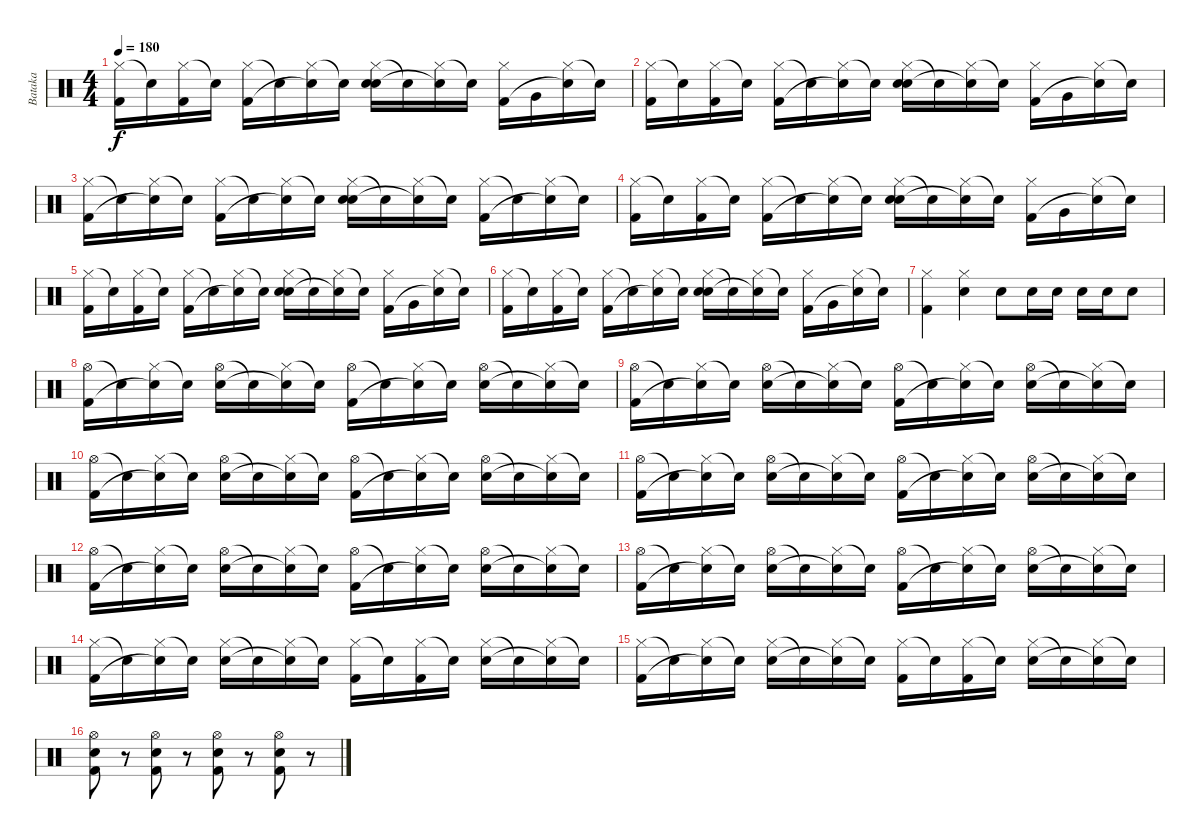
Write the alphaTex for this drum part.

\track ("Bataka" "Bataka") {instrument percussion}
\staff {score}
\articulation defaults
\ts (4 4)
\tempo 180
\clef neutral
\ks c
("Hi-Hat (closed)" "Kick (hit) 2").16{dy f} "Snare (hit)"{t}.16 ("Hi-Hat (closed)" "Kick (hit) 2").16 "Snare (hit)"{t}.16 ("Hi-Hat (closed)" "Kick (hit) 2").16 "Snare (hit)"{t}.16 ("Hi-Hat (closed)" "Snare (hit)"{t}).16 "Snare (hit)"{t}.16 ("Hi-Hat (closed)" "Snare (hit) 2" "Electric Snare (hit)").16 "Snare (hit)"{t}.16 ("Hi-Hat (closed)" "Snare (hit)"{t}).16 "Snare (hit)"{t}.16 ("Hi-Hat (closed)" "Kick (hit) 2").16 "Very Low Tom (hit)".16 ("Hi-Hat (closed)" "Snare (hit)"{t}).16 "Snare (hit)"{t}.16 |
("Hi-Hat (closed)" "Kick (hit) 2").16 "Snare (hit)"{t}.16 ("Hi-Hat (closed)" "Kick (hit) 2").16 "Snare (hit)"{t}.16 ("Hi-Hat (closed)" "Kick (hit) 2").16 "Snare (hit)"{t}.16 ("Hi-Hat (closed)" "Snare (hit)"{t}).16 "Snare (hit)"{t}.16 ("Hi-Hat (closed)" "Snare (hit) 2" "Electric Snare (hit)").16 "Snare (hit)"{t}.16 ("Hi-Hat (closed)" "Snare (hit)"{t}).16 "Snare (hit)"{t}.16 ("Hi-Hat (closed)" "Kick (hit) 2").16 "Very Low Tom (hit)".16 ("Hi-Hat (closed)" "Snare (hit)"{t}).16 "Snare (hit)"{t}.16 |
("Hi-Hat (closed)" "Kick (hit) 2").16 "Snare (hit)"{t}.16 ("Hi-Hat (closed)" "Snare (hit)"{t}).16 "Snare (hit)"{t}.16 ("Hi-Hat (closed)" "Kick (hit) 2").16 "Snare (hit)"{t}.16 ("Hi-Hat (closed)" "Snare (hit)"{t}).16 "Snare (hit)"{t}.16 ("Hi-Hat (closed)" "Snare (hit) 2" "Electric Snare (hit)").16 "Snare (hit)"{t}.16 ("Hi-Hat (closed)" "Snare (hit)"{t}).16 "Snare (hit)"{t}.16 ("Hi-Hat (closed)" "Kick (hit) 2").16 "Snare (hit)"{t}.16 ("Hi-Hat (closed)" "Snare (hit)"{t}).16 "Snare (hit)"{t}.16 |
("Hi-Hat (closed)" "Kick (hit) 2").16 "Snare (hit)"{t}.16 ("Hi-Hat (closed)" "Kick (hit) 2").16 "Snare (hit)"{t}.16 ("Hi-Hat (closed)" "Kick (hit) 2").16 "Snare (hit)"{t}.16 ("Hi-Hat (closed)" "Snare (hit)"{t}).16 "Snare (hit)"{t}.16 ("Hi-Hat (closed)" "Snare (hit) 2" "Electric Snare (hit)").16 "Snare (hit)"{t}.16 ("Hi-Hat (closed)" "Snare (hit)"{t}).16 "Snare (hit)"{t}.16 ("Hi-Hat (closed)" "Kick (hit) 2").16 "Very Low Tom (hit)".16 ("Hi-Hat (closed)" "Snare (hit)"{t}).16 "Snare (hit)"{t}.16 |
("Hi-Hat (closed)" "Kick (hit) 2").16 "Snare (hit)"{t}.16 ("Hi-Hat (closed)" "Kick (hit) 2").16 "Snare (hit)"{t}.16 ("Hi-Hat (closed)" "Kick (hit) 2").16 "Snare (hit)"{t}.16 ("Hi-Hat (closed)" "Snare (hit)"{t}).16 "Snare (hit)"{t}.16 ("Hi-Hat (closed)" "Snare (hit) 2" "Electric Snare (hit)").16 "Snare (hit)"{t}.16 ("Hi-Hat (closed)" "Snare (hit)"{t}).16 "Snare (hit)"{t}.16 ("Hi-Hat (closed)" "Kick (hit) 2").16 "Very Low Tom (hit)".16 ("Hi-Hat (closed)" "Snare (hit)"{t}).16 "Snare (hit)"{t}.16 |
("Hi-Hat (closed)" "Kick (hit) 2").16 "Snare (hit)"{t}.16 ("Hi-Hat (closed)" "Kick (hit) 2").16 "Snare (hit)"{t}.16 ("Hi-Hat (closed)" "Kick (hit) 2").16 "Snare (hit)"{t}.16 ("Hi-Hat (closed)" "Snare (hit)"{t}).16 "Snare (hit)"{t}.16 ("Hi-Hat (closed)" "Snare (hit) 2" "Electric Snare (hit)").16 "Snare (hit)"{t}.16 ("Hi-Hat (closed)" "Snare (hit)"{t}).16 "Snare (hit)"{t}.16 ("Hi-Hat (closed)" "Kick (hit) 2").16 "Very Low Tom (hit)".16 ("Hi-Hat (closed)" "Snare (hit)"{t}).16 "Snare (hit)"{t}.16 |
("Hi-Hat (closed)" "Kick (hit) 2").4 ("Hi-Hat (closed)" "Electric Snare (hit)").4 "Electric Snare (hit)".8 "Electric Snare (hit)".16 "Electric Snare (hit)".16 "Electric Snare (hit)".16 "Electric Snare (hit)".16 "Electric Snare (hit)".8 |
("Hi-Hat (open)" "Kick (hit) 2").16 "Snare (hit)"{t}.16 ("Hi-Hat (closed)" "Snare (hit)"{t}).16 "Snare (hit)"{t}.16 ("Hi-Hat (open)" "Electric Snare (hit)").16 "Snare (hit)"{t}.16 ("Hi-Hat (closed)" "Snare (hit)"{t}).16 "Snare (hit)"{t}.16 ("Hi-Hat (open)" "Kick (hit) 2").16 "Snare (hit)"{t}.16 ("Hi-Hat (closed)" "Snare (hit)"{t}).16 "Snare (hit)"{t}.16 ("Hi-Hat (open)" "Electric Snare (hit)").16 "Snare (hit)"{t}.16 ("Hi-Hat (closed)" "Snare (hit)"{t}).16 "Snare (hit)"{t}.16 |
("Hi-Hat (open)" "Kick (hit) 2").16 "Snare (hit)"{t}.16 ("Hi-Hat (closed)" "Snare (hit)"{t}).16 "Snare (hit)"{t}.16 ("Hi-Hat (open)" "Electric Snare (hit)").16 "Snare (hit)"{t}.16 ("Hi-Hat (closed)" "Snare (hit)"{t}).16 "Snare (hit)"{t}.16 ("Hi-Hat (open)" "Kick (hit) 2").16 "Snare (hit)"{t}.16 ("Hi-Hat (closed)" "Snare (hit)"{t}).16 "Snare (hit)"{t}.16 ("Hi-Hat (open)" "Electric Snare (hit)").16 "Snare (hit)"{t}.16 ("Hi-Hat (closed)" "Snare (hit)"{t}).16 "Snare (hit)"{t}.16 |
("Hi-Hat (open)" "Kick (hit) 2").16 "Snare (hit)"{t}.16 ("Hi-Hat (closed)" "Snare (hit)"{t}).16 "Snare (hit)"{t}.16 ("Hi-Hat (open)" "Electric Snare (hit)").16 "Snare (hit)"{t}.16 ("Hi-Hat (closed)" "Snare (hit)"{t}).16 "Snare (hit)"{t}.16 ("Hi-Hat (open)" "Kick (hit) 2").16 "Snare (hit)"{t}.16 ("Hi-Hat (closed)" "Snare (hit)"{t}).16 "Snare (hit)"{t}.16 ("Hi-Hat (open)" "Electric Snare (hit)").16 "Snare (hit)"{t}.16 ("Hi-Hat (closed)" "Snare (hit)"{t}).16 "Snare (hit)"{t}.16 |
("Hi-Hat (open)" "Kick (hit) 2").16 "Snare (hit)"{t}.16 ("Hi-Hat (closed)" "Snare (hit)"{t}).16 "Snare (hit)"{t}.16 ("Hi-Hat (open)" "Electric Snare (hit)").16 "Snare (hit)"{t}.16 ("Hi-Hat (closed)" "Snare (hit)"{t}).16 "Snare (hit)"{t}.16 ("Hi-Hat (open)" "Kick (hit) 2").16 "Snare (hit)"{t}.16 ("Hi-Hat (closed)" "Snare (hit)"{t}).16 "Snare (hit)"{t}.16 ("Hi-Hat (open)" "Electric Snare (hit)").16 "Snare (hit)"{t}.16 ("Hi-Hat (closed)" "Snare (hit)"{t}).16 "Snare (hit)"{t}.16 |
("Hi-Hat (open)" "Kick (hit) 2").16 "Snare (hit)"{t}.16 ("Hi-Hat (closed)" "Snare (hit)"{t}).16 "Snare (hit)"{t}.16 ("Hi-Hat (open)" "Electric Snare (hit)").16 "Snare (hit)"{t}.16 ("Hi-Hat (closed)" "Snare (hit)"{t}).16 "Snare (hit)"{t}.16 ("Hi-Hat (open)" "Kick (hit) 2").16 "Snare (hit)"{t}.16 ("Hi-Hat (closed)" "Snare (hit)"{t}).16 "Snare (hit)"{t}.16 ("Hi-Hat (open)" "Electric Snare (hit)").16 "Snare (hit)"{t}.16 ("Hi-Hat (closed)" "Snare (hit)"{t}).16 "Snare (hit)"{t}.16 |
("Hi-Hat (open)" "Kick (hit) 2").16 "Snare (hit)"{t}.16 ("Hi-Hat (closed)" "Snare (hit)"{t}).16 "Snare (hit)"{t}.16 ("Hi-Hat (open)" "Electric Snare (hit)").16 "Snare (hit)"{t}.16 ("Hi-Hat (closed)" "Snare (hit)"{t}).16 "Snare (hit)"{t}.16 ("Hi-Hat (open)" "Kick (hit) 2").16 "Snare (hit)"{t}.16 ("Hi-Hat (closed)" "Snare (hit)"{t}).16 "Snare (hit)"{t}.16 ("Hi-Hat (open)" "Electric Snare (hit)").16 "Snare (hit)"{t}.16 ("Hi-Hat (closed)" "Snare (hit)"{t}).16 "Snare (hit)"{t}.16 |
("Hi-Hat (closed)" "Kick (hit) 2").16 "Snare (hit)"{t}.16 ("Hi-Hat (closed)" "Snare (hit)"{t}).16 "Snare (hit)"{t}.16 ("Hi-Hat (closed)" "Electric Snare (hit)").16 "Snare (hit)"{t}.16 ("Hi-Hat (closed)" "Snare (hit)"{t}).16 "Snare (hit)"{t}.16 ("Hi-Hat (closed)" "Kick (hit) 2").16 "Snare (hit)"{t}.16 ("Hi-Hat (closed)" "Kick (hit) 2").16 "Snare (hit)"{t}.16 ("Hi-Hat (closed)" "Electric Snare (hit)").16 "Snare (hit)"{t}.16 ("Hi-Hat (closed)" "Snare (hit)"{t}).16 "Snare (hit)"{t}.16 |
("Hi-Hat (closed)" "Kick (hit) 2").16 "Snare (hit)"{t}.16 ("Hi-Hat (closed)" "Snare (hit)"{t}).16 "Snare (hit)"{t}.16 ("Hi-Hat (closed)" "Electric Snare (hit)").16 "Snare (hit)"{t}.16 ("Hi-Hat (closed)" "Snare (hit)"{t}).16 "Snare (hit)"{t}.16 ("Hi-Hat (closed)" "Kick (hit) 2").16 "Snare (hit)"{t}.16 ("Hi-Hat (closed)" "Kick (hit) 2").16 "Snare (hit)"{t}.16 ("Hi-Hat (closed)" "Electric Snare (hit)").16 "Snare (hit)"{t}.16 ("Hi-Hat (closed)" "Snare (hit)"{t}).16 "Snare (hit)"{t}.16 |
("Hi-Hat (open)" "Electric Snare (hit)" "Kick (hit) 2").8 r.8 ("Hi-Hat (open)" "Electric Snare (hit)" "Kick (hit) 2").8 r.8 ("Hi-Hat (open)" "Electric Snare (hit)" "Kick (hit) 2").8 r.8 ("Hi-Hat (open)" "Electric Snare (hit)" "Kick (hit) 2").8 r.8
